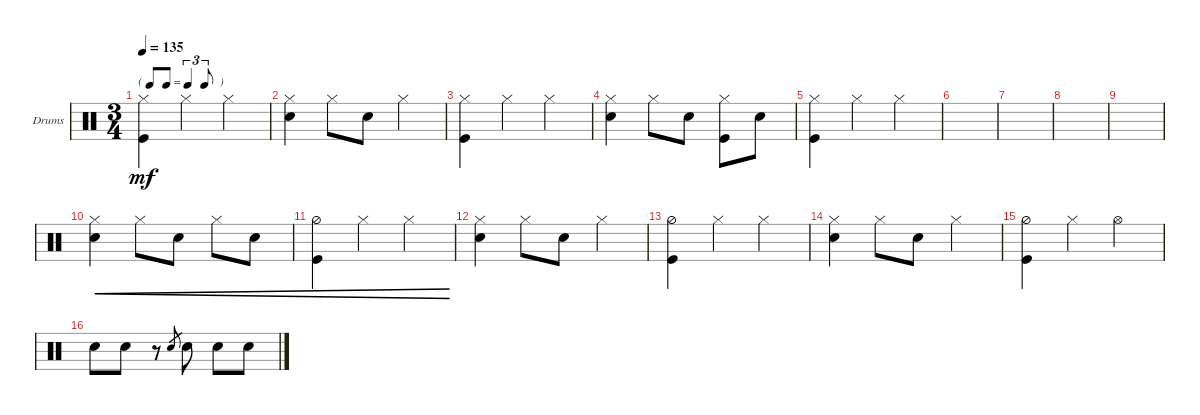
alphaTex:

\defaultSystemsLayout 4
\bracketExtendMode groupsimilarinstruments
\firstSystemTrackNameOrientation horizontal
\otherSystemsTrackNameOrientation horizontal
\track ("Drums" "Drums") {instrument percussion}
\staff {score}
\articulation defaults
\ts (3 4)
\tf triplet8th
\tempo 135
\clef neutral
\ks c
("Kick (hit)" "Hi-Hat (closed)").4{dy mf} "Hi-Hat (closed)".4 "Hi-Hat (closed)".4 |
("Hi-Hat (closed)" "Snare (hit) 2").4 "Hi-Hat (closed)".8 "Snare (hit) 2".8 "Hi-Hat (closed)".4 |
("Kick (hit)" "Hi-Hat (closed)").4 "Hi-Hat (closed)".4 "Hi-Hat (closed)".4 |
("Hi-Hat (closed)" "Snare (hit) 2").4 "Hi-Hat (closed)".8 "Snare (hit) 2".8 ("Hi-Hat (closed)" "Kick (hit)").8 "Snare (hit) 2".8 |
("Kick (hit)" "Hi-Hat (closed)").4 "Hi-Hat (closed)".4 "Hi-Hat (closed)".4 |
|
|
|
|
("Hi-Hat (closed)" "Snare (hit) 2").4{cre} "Hi-Hat (closed)".8{cre} "Snare (hit) 2".8{cre} "Hi-Hat (closed)".8{cre} "Snare (hit) 2".8{cre} |
("Kick (hit)" "Hi-Hat (half)").4{cre} "Hi-Hat (closed)".4{cre} "Hi-Hat (closed)".4{cre} |
("Hi-Hat (closed)" "Snare (hit) 2").4 "Hi-Hat (closed)".8 "Snare (hit) 2".8 "Hi-Hat (closed)".4 |
("Kick (hit)" "Hi-Hat (half)").4 "Hi-Hat (closed)".4 "Hi-Hat (closed)".4 |
("Hi-Hat (closed)" "Snare (hit) 2").4 "Hi-Hat (closed)".8 "Snare (hit) 2".8 "Hi-Hat (closed)".4 |
("Kick (hit)" "Hi-Hat (half)").4 "Hi-Hat (closed)".4 "Hi-Hat (open)".4 |
"Snare (hit) 2".8 "Snare (hit) 2".8 r.8 "Snare (hit) 2".8{gr} "Snare (hit) 2".8 "Snare (hit) 2".8 "Snare (hit) 2".8
